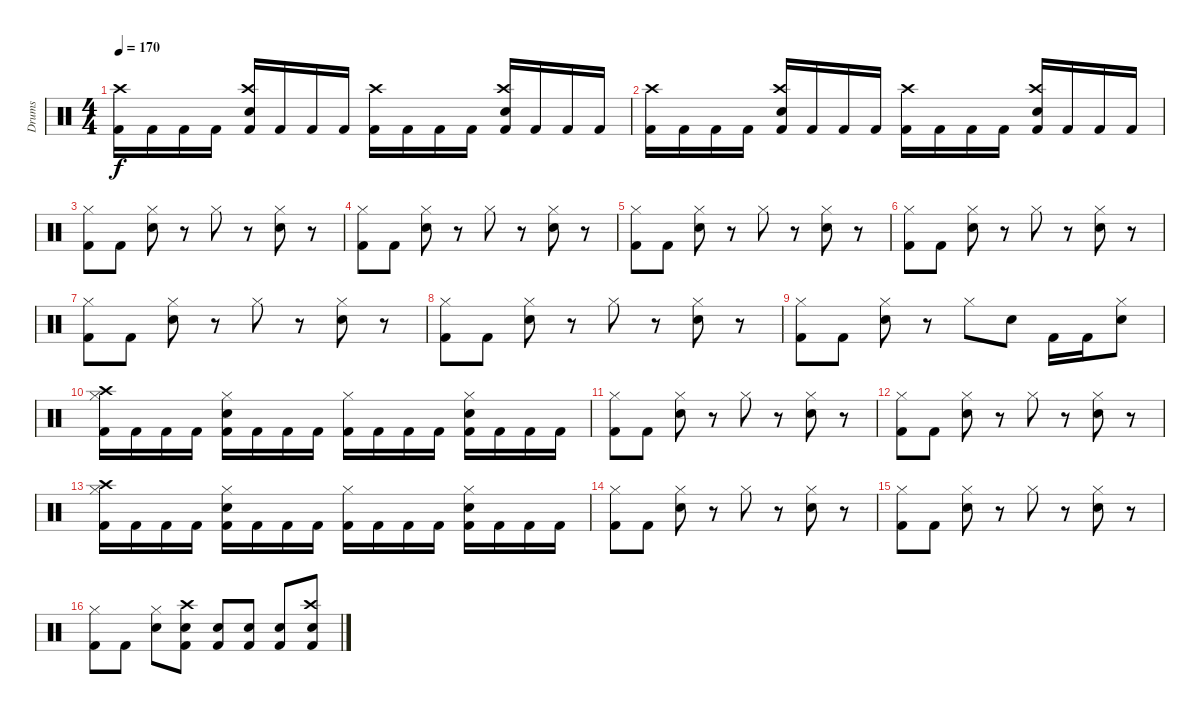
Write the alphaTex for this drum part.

\track ("Drums" "Drums") {instrument percussion}
\staff {score}
\articulation defaults
\ts (4 4)
\tempo 170
\clef neutral
\ks c
("Kick (hit) 2" "Crash high (hit)").16{dy f} "Kick (hit) 2".16 "Kick (hit) 2".16 "Kick (hit) 2".16 ("Kick (hit) 2" "Snare (hit) 2" "Crash high (hit)").16 "Kick (hit) 2".16 "Kick (hit) 2".16 "Kick (hit) 2".16 ("Kick (hit) 2" "Crash high (hit)").16 "Kick (hit) 2".16 "Kick (hit) 2".16 "Kick (hit) 2".16 ("Kick (hit) 2" "Snare (hit) 2" "Crash high (hit)").16 "Kick (hit) 2".16 "Kick (hit) 2".16 "Kick (hit) 2".16 |
("Kick (hit) 2" "Crash high (hit)").16 "Kick (hit) 2".16 "Kick (hit) 2".16 "Kick (hit) 2".16 ("Kick (hit) 2" "Snare (hit) 2" "Crash high (hit)").16 "Kick (hit) 2".16 "Kick (hit) 2".16 "Kick (hit) 2".16 ("Kick (hit) 2" "Crash high (hit)").16 "Kick (hit) 2".16 "Kick (hit) 2".16 "Kick (hit) 2".16 ("Kick (hit) 2" "Snare (hit) 2" "Crash high (hit)").16 "Kick (hit) 2".16 "Kick (hit) 2".16 "Kick (hit) 2".16 |
("Kick (hit) 2" "Hi-Hat (closed)").8 "Kick (hit) 2".8 ("Snare (hit) 2" "Hi-Hat (closed)").8 r.8 "Hi-Hat (closed)".8 r.8 ("Snare (hit) 2" "Hi-Hat (closed)").8 r.8 |
("Kick (hit) 2" "Hi-Hat (closed)").8 "Kick (hit) 2".8 ("Snare (hit) 2" "Hi-Hat (closed)").8 r.8 "Hi-Hat (closed)".8 r.8 ("Snare (hit) 2" "Hi-Hat (closed)").8 r.8 |
("Kick (hit) 2" "Hi-Hat (closed)").8 "Kick (hit) 2".8 ("Snare (hit) 2" "Hi-Hat (closed)").8 r.8 "Hi-Hat (closed)".8 r.8 ("Snare (hit) 2" "Hi-Hat (closed)").8 r.8 |
("Kick (hit) 2" "Hi-Hat (closed)").8 "Kick (hit) 2".8 ("Snare (hit) 2" "Hi-Hat (closed)").8 r.8 "Hi-Hat (closed)".8 r.8 ("Snare (hit) 2" "Hi-Hat (closed)").8 r.8 |
("Kick (hit) 2" "Hi-Hat (closed)").8 "Kick (hit) 2".8 ("Snare (hit) 2" "Hi-Hat (closed)").8 r.8 "Hi-Hat (closed)".8 r.8 ("Snare (hit) 2" "Hi-Hat (closed)").8 r.8 |
("Kick (hit) 2" "Hi-Hat (closed)").8 "Kick (hit) 2".8 ("Snare (hit) 2" "Hi-Hat (closed)").8 r.8 "Hi-Hat (closed)".8 r.8 ("Snare (hit) 2" "Hi-Hat (closed)").8 r.8 |
("Kick (hit) 2" "Hi-Hat (closed)").8 "Kick (hit) 2".8 ("Snare (hit) 2" "Hi-Hat (closed)").8 r.8 "Hi-Hat (closed)".8 "Snare (hit) 2".8 "Kick (hit) 2".16 "Kick (hit) 2".16 ("Snare (hit) 2" "Hi-Hat (closed)").8 |
("Kick (hit) 2" "Hi-Hat (closed)" "Crash high (hit)").16 "Kick (hit) 2".16 "Kick (hit) 2".16 "Kick (hit) 2".16 ("Kick (hit) 2" "Snare (hit) 2" "Hi-Hat (closed)").16 "Kick (hit) 2".16 "Kick (hit) 2".16 "Kick (hit) 2".16 ("Kick (hit) 2" "Hi-Hat (closed)").16 "Kick (hit) 2".16 "Kick (hit) 2".16 "Kick (hit) 2".16 ("Kick (hit) 2" "Snare (hit) 2" "Hi-Hat (closed)").16 "Kick (hit) 2".16 "Kick (hit) 2".16 "Kick (hit) 2".16 |
("Kick (hit) 2" "Hi-Hat (closed)").8 "Kick (hit) 2".8 ("Snare (hit) 2" "Hi-Hat (closed)").8 r.8 "Hi-Hat (closed)".8 r.8 ("Snare (hit) 2" "Hi-Hat (closed)").8 r.8 |
("Kick (hit) 2" "Hi-Hat (closed)").8 "Kick (hit) 2".8 ("Snare (hit) 2" "Hi-Hat (closed)").8 r.8 "Hi-Hat (closed)".8 r.8 ("Snare (hit) 2" "Hi-Hat (closed)").8 r.8 |
("Kick (hit) 2" "Hi-Hat (closed)" "Crash high (hit)").16 "Kick (hit) 2".16 "Kick (hit) 2".16 "Kick (hit) 2".16 ("Kick (hit) 2" "Snare (hit) 2" "Hi-Hat (closed)").16 "Kick (hit) 2".16 "Kick (hit) 2".16 "Kick (hit) 2".16 ("Kick (hit) 2" "Hi-Hat (closed)").16 "Kick (hit) 2".16 "Kick (hit) 2".16 "Kick (hit) 2".16 ("Kick (hit) 2" "Snare (hit) 2" "Hi-Hat (closed)").16 "Kick (hit) 2".16 "Kick (hit) 2".16 "Kick (hit) 2".16 |
("Kick (hit) 2" "Hi-Hat (closed)").8 "Kick (hit) 2".8 ("Snare (hit) 2" "Hi-Hat (closed)").8 r.8 "Hi-Hat (closed)".8 r.8 ("Snare (hit) 2" "Hi-Hat (closed)").8 r.8 |
("Kick (hit) 2" "Hi-Hat (closed)").8 "Kick (hit) 2".8 ("Snare (hit) 2" "Hi-Hat (closed)").8 r.8 "Hi-Hat (closed)".8 r.8 ("Snare (hit) 2" "Hi-Hat (closed)").8 r.8 |
("Kick (hit) 2" "Hi-Hat (closed)").8 "Kick (hit) 2".8 ("Snare (hit) 2" "Hi-Hat (closed)").8 ("Kick (hit) 2" "Snare (hit) 2" "Crash high (hit)").8 ("Kick (hit) 2" "Snare (hit) 2").8 ("Kick (hit) 2" "Snare (hit) 2").8 ("Kick (hit) 2" "Snare (hit) 2").8 ("Kick (hit) 2" "Snare (hit) 2" "Crash high (hit)").8
